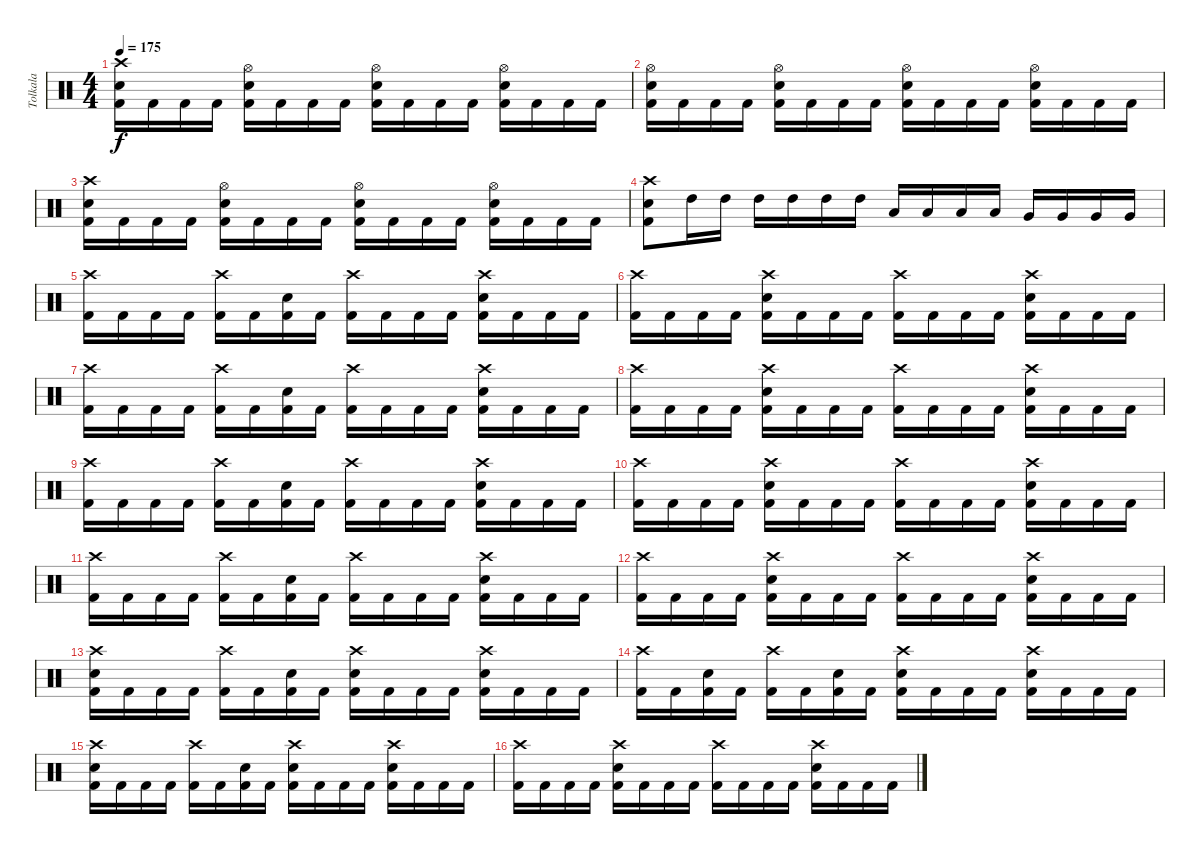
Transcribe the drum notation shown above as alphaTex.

\track ("Tolkala" "Tolkala") {instrument percussion}
\staff {score}
\articulation defaults
\ts (4 4)
\tempo 175
\clef neutral
\ks c
("Crash high (hit)" "Electric Snare (hit)" "Kick (hit) 2").16{dy f} "Kick (hit) 2".16 "Kick (hit) 2".16 "Kick (hit) 2".16 ("Hi-Hat (open)" "Electric Snare (hit)" "Kick (hit) 2").16 "Kick (hit) 2".16 "Kick (hit) 2".16 "Kick (hit) 2".16 ("Hi-Hat (open)" "Electric Snare (hit)" "Kick (hit) 2").16 "Kick (hit) 2".16 "Kick (hit) 2".16 "Kick (hit) 2".16 ("Hi-Hat (open)" "Electric Snare (hit)" "Kick (hit) 2").16 "Kick (hit) 2".16 "Kick (hit) 2".16 "Kick (hit) 2".16 |
("Hi-Hat (open)" "Electric Snare (hit)" "Kick (hit) 2").16 "Kick (hit) 2".16 "Kick (hit) 2".16 "Kick (hit) 2".16 ("Hi-Hat (open)" "Electric Snare (hit)" "Kick (hit) 2").16 "Kick (hit) 2".16 "Kick (hit) 2".16 "Kick (hit) 2".16 ("Hi-Hat (open)" "Electric Snare (hit)" "Kick (hit) 2").16 "Kick (hit) 2".16 "Kick (hit) 2".16 "Kick (hit) 2".16 ("Hi-Hat (open)" "Electric Snare (hit)" "Kick (hit) 2").16 "Kick (hit) 2".16 "Kick (hit) 2".16 "Kick (hit) 2".16 |
("Crash high (hit)" "Electric Snare (hit)" "Kick (hit) 2").16 "Kick (hit) 2".16 "Kick (hit) 2".16 "Kick (hit) 2".16 ("Hi-Hat (open)" "Electric Snare (hit)" "Kick (hit) 2").16 "Kick (hit) 2".16 "Kick (hit) 2".16 "Kick (hit) 2".16 ("Hi-Hat (open)" "Electric Snare (hit)" "Kick (hit) 2").16 "Kick (hit) 2".16 "Kick (hit) 2".16 "Kick (hit) 2".16 ("Hi-Hat (open)" "Electric Snare (hit)" "Kick (hit) 2").16 "Kick (hit) 2".16 "Kick (hit) 2".16 "Kick (hit) 2".16 |
("Crash high (hit)" "Electric Snare (hit)" "Kick (hit) 2").8 "High Tom (hit)".16 "High Tom (hit)".16 "High Tom (hit)".16 "High Tom (hit)".16 "High Tom (hit)".16 "High Tom (hit)".16 "Low Tom (hit)".16 "Low Tom (hit)".16 "Low Tom (hit)".16 "Low Tom (hit)".16 "Very Low Tom (hit)".16 "Very Low Tom (hit)".16 "Very Low Tom (hit)".16 "Very Low Tom (hit)".16 |
("Crash high (hit)" "Kick (hit) 2").16 "Kick (hit) 2".16 "Kick (hit) 2".16 "Kick (hit) 2".16 ("Crash high (hit)" "Kick (hit) 2").16 "Kick (hit) 2".16 ("Electric Snare (hit)" "Kick (hit) 2").16 "Kick (hit) 2".16 ("Crash high (hit)" "Kick (hit) 2").16 "Kick (hit) 2".16 "Kick (hit) 2".16 "Kick (hit) 2".16 ("Crash high (hit)" "Electric Snare (hit)" "Kick (hit) 2").16 "Kick (hit) 2".16 "Kick (hit) 2".16 "Kick (hit) 2".16 |
("Crash high (hit)" "Kick (hit) 2").16 "Kick (hit) 2".16 "Kick (hit) 2".16 "Kick (hit) 2".16 ("Crash high (hit)" "Electric Snare (hit)" "Kick (hit) 2").16 "Kick (hit) 2".16 "Kick (hit) 2".16 "Kick (hit) 2".16 ("Crash high (hit)" "Kick (hit) 2").16 "Kick (hit) 2".16 "Kick (hit) 2".16 "Kick (hit) 2".16 ("Crash high (hit)" "Electric Snare (hit)" "Kick (hit) 2").16 "Kick (hit) 2".16 "Kick (hit) 2".16 "Kick (hit) 2".16 |
("Crash high (hit)" "Kick (hit) 2").16 "Kick (hit) 2".16 "Kick (hit) 2".16 "Kick (hit) 2".16 ("Crash high (hit)" "Kick (hit) 2").16 "Kick (hit) 2".16 ("Electric Snare (hit)" "Kick (hit) 2").16 "Kick (hit) 2".16 ("Crash high (hit)" "Kick (hit) 2").16 "Kick (hit) 2".16 "Kick (hit) 2".16 "Kick (hit) 2".16 ("Crash high (hit)" "Electric Snare (hit)" "Kick (hit) 2").16 "Kick (hit) 2".16 "Kick (hit) 2".16 "Kick (hit) 2".16 |
("Crash high (hit)" "Kick (hit) 2").16 "Kick (hit) 2".16 "Kick (hit) 2".16 "Kick (hit) 2".16 ("Crash high (hit)" "Electric Snare (hit)" "Kick (hit) 2").16 "Kick (hit) 2".16 "Kick (hit) 2".16 "Kick (hit) 2".16 ("Crash high (hit)" "Kick (hit) 2").16 "Kick (hit) 2".16 "Kick (hit) 2".16 "Kick (hit) 2".16 ("Crash high (hit)" "Electric Snare (hit)" "Kick (hit) 2").16 "Kick (hit) 2".16 "Kick (hit) 2".16 "Kick (hit) 2".16 |
("Crash high (hit)" "Kick (hit) 2").16 "Kick (hit) 2".16 "Kick (hit) 2".16 "Kick (hit) 2".16 ("Crash high (hit)" "Kick (hit) 2").16 "Kick (hit) 2".16 ("Electric Snare (hit)" "Kick (hit) 2").16 "Kick (hit) 2".16 ("Crash high (hit)" "Kick (hit) 2").16 "Kick (hit) 2".16 "Kick (hit) 2".16 "Kick (hit) 2".16 ("Crash high (hit)" "Electric Snare (hit)" "Kick (hit) 2").16 "Kick (hit) 2".16 "Kick (hit) 2".16 "Kick (hit) 2".16 |
("Crash high (hit)" "Kick (hit) 2").16 "Kick (hit) 2".16 "Kick (hit) 2".16 "Kick (hit) 2".16 ("Crash high (hit)" "Electric Snare (hit)" "Kick (hit) 2").16 "Kick (hit) 2".16 "Kick (hit) 2".16 "Kick (hit) 2".16 ("Crash high (hit)" "Kick (hit) 2").16 "Kick (hit) 2".16 "Kick (hit) 2".16 "Kick (hit) 2".16 ("Crash high (hit)" "Electric Snare (hit)" "Kick (hit) 2").16 "Kick (hit) 2".16 "Kick (hit) 2".16 "Kick (hit) 2".16 |
("Crash high (hit)" "Kick (hit) 2").16 "Kick (hit) 2".16 "Kick (hit) 2".16 "Kick (hit) 2".16 ("Crash high (hit)" "Kick (hit) 2").16 "Kick (hit) 2".16 ("Electric Snare (hit)" "Kick (hit) 2").16 "Kick (hit) 2".16 ("Crash high (hit)" "Kick (hit) 2").16 "Kick (hit) 2".16 "Kick (hit) 2".16 "Kick (hit) 2".16 ("Crash high (hit)" "Electric Snare (hit)" "Kick (hit) 2").16 "Kick (hit) 2".16 "Kick (hit) 2".16 "Kick (hit) 2".16 |
("Crash high (hit)" "Kick (hit) 2").16 "Kick (hit) 2".16 "Kick (hit) 2".16 "Kick (hit) 2".16 ("Crash high (hit)" "Electric Snare (hit)" "Kick (hit) 2").16 "Kick (hit) 2".16 "Kick (hit) 2".16 "Kick (hit) 2".16 ("Crash high (hit)" "Kick (hit) 2").16 "Kick (hit) 2".16 "Kick (hit) 2".16 "Kick (hit) 2".16 ("Crash high (hit)" "Electric Snare (hit)" "Kick (hit) 2").16 "Kick (hit) 2".16 "Kick (hit) 2".16 "Kick (hit) 2".16 |
("Crash high (hit)" "Electric Snare (hit)" "Kick (hit) 2").16 "Kick (hit) 2".16 "Kick (hit) 2".16 "Kick (hit) 2".16 ("Crash high (hit)" "Kick (hit) 2").16 "Kick (hit) 2".16 ("Electric Snare (hit)" "Kick (hit) 2").16 "Kick (hit) 2".16 ("Crash high (hit)" "Electric Snare (hit)" "Kick (hit) 2").16 "Kick (hit) 2".16 "Kick (hit) 2".16 "Kick (hit) 2".16 ("Crash high (hit)" "Electric Snare (hit)" "Kick (hit) 2").16 "Kick (hit) 2".16 "Kick (hit) 2".16 "Kick (hit) 2".16 |
("Crash high (hit)" "Kick (hit) 2").16 "Kick (hit) 2".16 ("Electric Snare (hit)" "Kick (hit) 2").16 "Kick (hit) 2".16 ("Crash high (hit)" "Kick (hit) 2").16 "Kick (hit) 2".16 ("Electric Snare (hit)" "Kick (hit) 2").16 "Kick (hit) 2".16 ("Crash high (hit)" "Electric Snare (hit)" "Kick (hit) 2").16 "Kick (hit) 2".16 "Kick (hit) 2".16 "Kick (hit) 2".16 ("Crash high (hit)" "Electric Snare (hit)" "Kick (hit) 2").16 "Kick (hit) 2".16 "Kick (hit) 2".16 "Kick (hit) 2".16 |
("Crash high (hit)" "Electric Snare (hit)" "Kick (hit) 2").16 "Kick (hit) 2".16 "Kick (hit) 2".16 "Kick (hit) 2".16 ("Crash high (hit)" "Kick (hit) 2").16 "Kick (hit) 2".16 ("Electric Snare (hit)" "Kick (hit) 2").16 "Kick (hit) 2".16 ("Crash high (hit)" "Electric Snare (hit)" "Kick (hit) 2").16 "Kick (hit) 2".16 "Kick (hit) 2".16 "Kick (hit) 2".16 ("Crash high (hit)" "Electric Snare (hit)" "Kick (hit) 2").16 "Kick (hit) 2".16 "Kick (hit) 2".16 "Kick (hit) 2".16 |
("Crash high (hit)" "Kick (hit) 2").16 "Kick (hit) 2".16 "Kick (hit) 2".16 "Kick (hit) 2".16 ("Crash high (hit)" "Electric Snare (hit)" "Kick (hit) 2").16 "Kick (hit) 2".16 "Kick (hit) 2".16 "Kick (hit) 2".16 ("Crash high (hit)" "Kick (hit) 2").16 "Kick (hit) 2".16 "Kick (hit) 2".16 "Kick (hit) 2".16 ("Crash high (hit)" "Electric Snare (hit)" "Kick (hit) 2").16 "Kick (hit) 2".16 "Kick (hit) 2".16 "Kick (hit) 2".16
